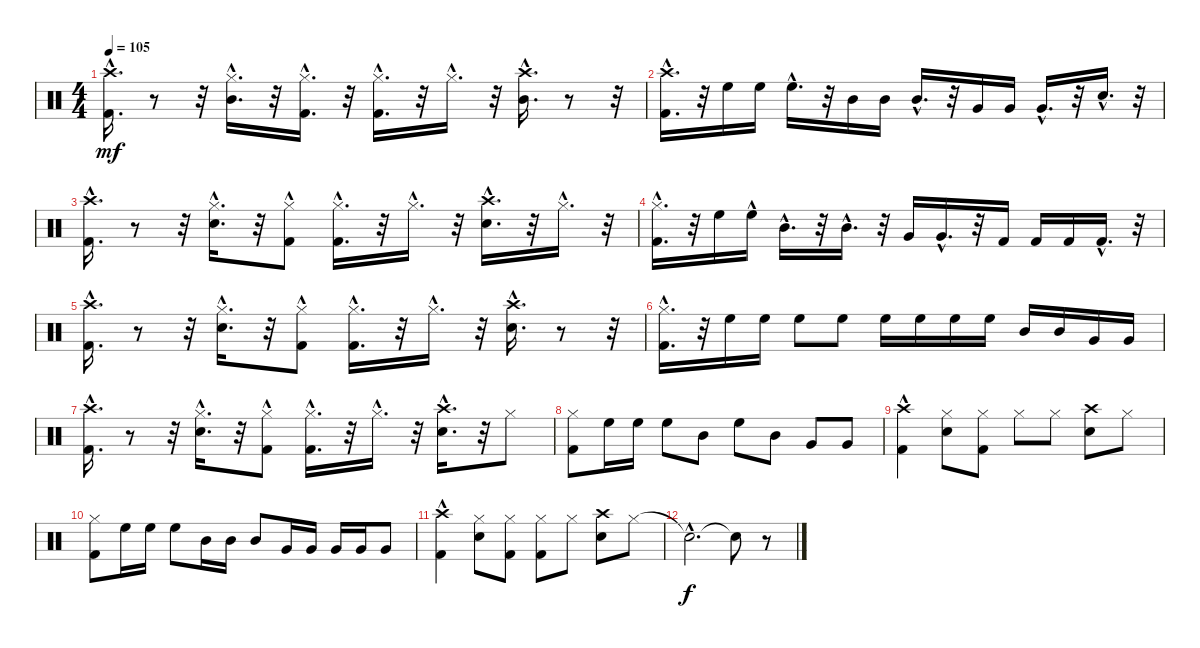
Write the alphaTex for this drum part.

\track "" {instrument percussion}
\staff {score}
\articulation defaults
\ts (4 4)
\tempo 105
\clef neutral
\ks c
("Kick (hit) 2"{hac} "Crash high (hit)"{hac}).16{d dy mf} r.8 r.32 ("Hi-Hat (closed)"{hac} "Mid Tom (hit)"{hac}).16{d} r.32 ("Kick (hit) 2"{hac} "Hi-Hat (closed)"{hac}).16{d} r.32 ("Kick (hit) 2"{hac} "Hi-Hat (closed)"{hac}).16{d} r.32 "Hi-Hat (closed)"{hac}.16{d} r.32 ("Mid Tom (hit)"{hac} "Crash high (hit)"{hac}).16{d} r.8 r.32 |
("Kick (hit) 2"{hac} "Crash high (hit)"{hac}).16{d} r.32 "High Floor Tom (hit)".16 "High Floor Tom (hit)".16 "High Floor Tom (hit)"{hac}.16{d} r.32 "Mid Tom (hit)".16 "Mid Tom (hit)".16 "Mid Tom (hit)"{hac}.16{d} r.32 "Very Low Tom (hit)".16 "Very Low Tom (hit)".16 "Very Low Tom (hit)"{hac}.16{d} r.32 "Snare (hit) 2"{hac}.16{d} r.32 |
("Kick (hit) 2"{hac} "Crash high (hit)"{hac}).16{d} r.8 r.32 ("Snare (hit) 2"{hac} "Hi-Hat (closed)"{hac}).16{d} r.32 ("Kick (hit) 2" "Hi-Hat (closed)"{hac}).8 ("Kick (hit) 2"{hac} "Hi-Hat (closed)"{hac}).16{d} r.32 "Hi-Hat (closed)"{hac}.16{d} r.32 ("Snare (hit) 2"{hac} "Crash high (hit)"{hac}).16{d} r.32 "Hi-Hat (closed)"{hac}.16{d} r.32 |
("Kick (hit) 2"{hac} "Hi-Hat (closed)"{hac}).16{d} r.32 "High Floor Tom (hit)".16 "High Floor Tom (hit)"{hac}.16 "Mid Tom (hit)"{hac}.16{d} r.32 "Mid Tom (hit)"{hac}.16{d} r.32 "Very Low Tom (hit)".16 "Very Low Tom (hit)"{hac}.16{d} r.32 "Kick (hit) 2".16 "Kick (hit) 2".16 "Kick (hit) 2".16 "Kick (hit) 2"{hac}.16{d} r.32 |
("Kick (hit) 2"{hac} "Crash high (hit)"{hac}).16{d volume 14} r.8 r.32 ("Snare (hit) 2"{hac} "Hi-Hat (closed)"{hac}).16{d volume 13} r.32 ("Kick (hit) 2" "Hi-Hat (closed)"{hac}).8{volume 13} ("Kick (hit) 2"{hac} "Hi-Hat (closed)"{hac}).16{d volume 13} r.32 "Hi-Hat (closed)"{hac}.16{d volume 12} r.32 ("Snare (hit) 2"{hac} "Crash high (hit)"{hac}).16{d volume 12} r.8 r.32 |
("Kick (hit) 2"{hac} "Hi-Hat (closed)"{hac}).16{d volume 12} r.32 "High Floor Tom (hit)".16{volume 12} "High Floor Tom (hit)".16{volume 11} "High Floor Tom (hit)".8{volume 11} "High Floor Tom (hit)".8{volume 11} "High Floor Tom (hit)".16{volume 11} "High Floor Tom (hit)".16{volume 11} "High Floor Tom (hit)".16{volume 10} "High Floor Tom (hit)".16{volume 10} "Mid Tom (hit)".16{volume 10} "Mid Tom (hit)".16{volume 10} "Very Low Tom (hit)".16{volume 10} "Very Low Tom (hit)".16{volume 10} |
("Kick (hit) 2"{hac} "Crash high (hit)"{hac}).16{d volume 10} r.8 r.32 ("Snare (hit) 2"{hac} "Hi-Hat (closed)"{hac}).16{d volume 9} r.32 ("Kick (hit) 2" "Hi-Hat (closed)"{hac}).8{volume 9} ("Kick (hit) 2"{hac} "Hi-Hat (closed)"{hac}).16{d volume 9} r.32 "Hi-Hat (closed)"{hac}.16{d volume 9} r.32 ("Snare (hit) 2"{hac} "Crash high (hit)"{hac}).16{d volume 8} r.32 "Hi-Hat (closed)".8{volume 8} |
("Kick (hit) 2" "Hi-Hat (closed)").8{volume 8} "High Floor Tom (hit)".16{volume 8} "High Floor Tom (hit)".16{volume 8} "High Floor Tom (hit)".8{volume 7} "Mid Tom (hit)".8{volume 7} "High Floor Tom (hit)".8{volume 7} "Mid Tom (hit)".8{volume 7} "Very Low Tom (hit)".8{volume 6} "Very Low Tom (hit)".8{volume 6} |
("Kick (hit) 2"{hac} "Crash high (hit)"{hac}).4{volume 6} ("Snare (hit) 2" "Hi-Hat (closed)").8{volume 5} ("Kick (hit) 2" "Hi-Hat (closed)").8{volume 5} "Hi-Hat (closed)".8{volume 5} "Hi-Hat (closed)".8{volume 5} ("Snare (hit) 2" "Crash high (hit)").8{volume 4} "Hi-Hat (closed)".8{volume 4} |
("Hi-Hat (closed)" "Kick (hit) 2").8{volume 4} "High Floor Tom (hit)".16{volume 4} "High Floor Tom (hit)".16{volume 4} "High Floor Tom (hit)".8{volume 4} "Mid Tom (hit)".16{volume 3} "Mid Tom (hit)".16{volume 3} "Mid Tom (hit)".8{volume 3} "Very Low Tom (hit)".16{volume 3} "Very Low Tom (hit)".16{volume 3} "Very Low Tom (hit)".16{volume 2} "Very Low Tom (hit)".16{volume 2} "Very Low Tom (hit)".8{volume 2} |
("Kick (hit) 2"{hac} "Crash high (hit)"{hac}).4{volume 2} ("Snare (hit) 2" "Hi-Hat (closed)").8{volume 2} ("Kick (hit) 2" "Hi-Hat (closed)").8{volume 1} ("Kick (hit) 2" "Hi-Hat (closed)").8{volume 1} "Hi-Hat (closed)".8{volume 1} ("Snare (hit) 2" "Crash high (hit)").8{volume 0} "Hi-Hat (closed)".8{volume 0} |
"Snare (hit)"{hac t}.2{d dy f} "Snare (hit)"{t}.8 r.8
